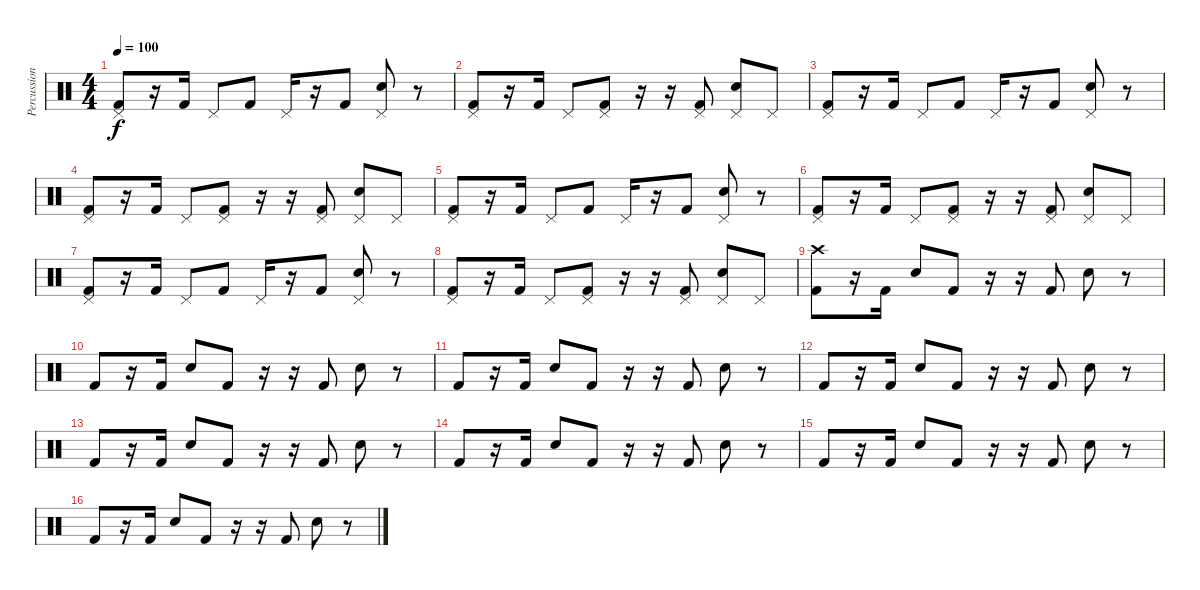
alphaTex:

\track ("Percussions" "Percussion") {instrument percussion}
\staff {score}
\articulation defaults
\ts (4 4)
\tempo 100
\clef neutral
\ks c
("Pedal Hi-Hat (hit)" "Kick (hit) 2").8{dy f} r.16 "Kick (hit) 2".16 "Pedal Hi-Hat (hit)".8 "Kick (hit) 2".8 "Pedal Hi-Hat (hit)".16 r.16 "Kick (hit) 2".8 ("Pedal Hi-Hat (hit)" "Snare (hit) 2").8 r.8 |
("Pedal Hi-Hat (hit)" "Kick (hit) 2").8 r.16 "Kick (hit) 2".16 "Pedal Hi-Hat (hit)".8 ("Pedal Hi-Hat (hit)" "Kick (hit) 2").8 r.16 r.16 ("Pedal Hi-Hat (hit)" "Kick (hit) 2").8 ("Pedal Hi-Hat (hit)" "Snare (hit) 2").8 "Pedal Hi-Hat (hit)".8 |
("Pedal Hi-Hat (hit)" "Kick (hit) 2").8 r.16 "Kick (hit) 2".16 "Pedal Hi-Hat (hit)".8 "Kick (hit) 2".8 "Pedal Hi-Hat (hit)".16 r.16 "Kick (hit) 2".8 ("Pedal Hi-Hat (hit)" "Snare (hit) 2").8 r.8 |
("Pedal Hi-Hat (hit)" "Kick (hit) 2").8 r.16 "Kick (hit) 2".16 "Pedal Hi-Hat (hit)".8 ("Pedal Hi-Hat (hit)" "Kick (hit) 2").8 r.16 r.16 ("Pedal Hi-Hat (hit)" "Kick (hit) 2").8 ("Pedal Hi-Hat (hit)" "Snare (hit) 2").8 "Pedal Hi-Hat (hit)".8 |
("Pedal Hi-Hat (hit)" "Kick (hit) 2").8 r.16 "Kick (hit) 2".16 "Pedal Hi-Hat (hit)".8 "Kick (hit) 2".8 "Pedal Hi-Hat (hit)".16 r.16 "Kick (hit) 2".8 ("Pedal Hi-Hat (hit)" "Snare (hit) 2").8 r.8 |
("Pedal Hi-Hat (hit)" "Kick (hit) 2").8 r.16 "Kick (hit) 2".16 "Pedal Hi-Hat (hit)".8 ("Pedal Hi-Hat (hit)" "Kick (hit) 2").8 r.16 r.16 ("Pedal Hi-Hat (hit)" "Kick (hit) 2").8 ("Pedal Hi-Hat (hit)" "Snare (hit) 2").8 "Pedal Hi-Hat (hit)".8 |
("Pedal Hi-Hat (hit)" "Kick (hit) 2").8 r.16 "Kick (hit) 2".16 "Pedal Hi-Hat (hit)".8 "Kick (hit) 2".8 "Pedal Hi-Hat (hit)".16 r.16 "Kick (hit) 2".8 ("Pedal Hi-Hat (hit)" "Snare (hit) 2").8 r.8 |
("Pedal Hi-Hat (hit)" "Kick (hit) 2").8 r.16 "Kick (hit) 2".16 "Pedal Hi-Hat (hit)".8 ("Pedal Hi-Hat (hit)" "Kick (hit) 2").8 r.16 r.16 ("Pedal Hi-Hat (hit)" "Kick (hit) 2").8 ("Pedal Hi-Hat (hit)" "Snare (hit) 2").8 "Pedal Hi-Hat (hit)".8 |
("Crash high (hit)" "Kick (hit) 2").8{volume 10} r.16 "Kick (hit) 2".16 "Snare (hit) 2".8 "Kick (hit) 2".8 r.16 r.16 "Kick (hit) 2".8 "Snare (hit) 2".8 r.8 |
"Kick (hit) 2".8 r.16 "Kick (hit) 2".16 "Snare (hit) 2".8 "Kick (hit) 2".8 r.16 r.16 "Kick (hit) 2".8 "Snare (hit) 2".8 r.8 |
"Kick (hit) 2".8 r.16 "Kick (hit) 2".16 "Snare (hit) 2".8 "Kick (hit) 2".8 r.16 r.16 "Kick (hit) 2".8 "Snare (hit) 2".8 r.8 |
"Kick (hit) 2".8 r.16 "Kick (hit) 2".16 "Snare (hit) 2".8 "Kick (hit) 2".8 r.16 r.16 "Kick (hit) 2".8 "Snare (hit) 2".8 r.8 |
"Kick (hit) 2".8 r.16 "Kick (hit) 2".16 "Snare (hit) 2".8 "Kick (hit) 2".8 r.16 r.16 "Kick (hit) 2".8 "Snare (hit) 2".8 r.8 |
"Kick (hit) 2".8 r.16 "Kick (hit) 2".16 "Snare (hit) 2".8 "Kick (hit) 2".8 r.16 r.16 "Kick (hit) 2".8 "Snare (hit) 2".8 r.8 |
"Kick (hit) 2".8 r.16 "Kick (hit) 2".16 "Snare (hit) 2".8 "Kick (hit) 2".8 r.16 r.16 "Kick (hit) 2".8 "Snare (hit) 2".8 r.8 |
"Kick (hit) 2".8 r.16 "Kick (hit) 2".16 "Snare (hit) 2".8 "Kick (hit) 2".8 r.16 r.16 "Kick (hit) 2".8 "Snare (hit) 2".8 r.8
